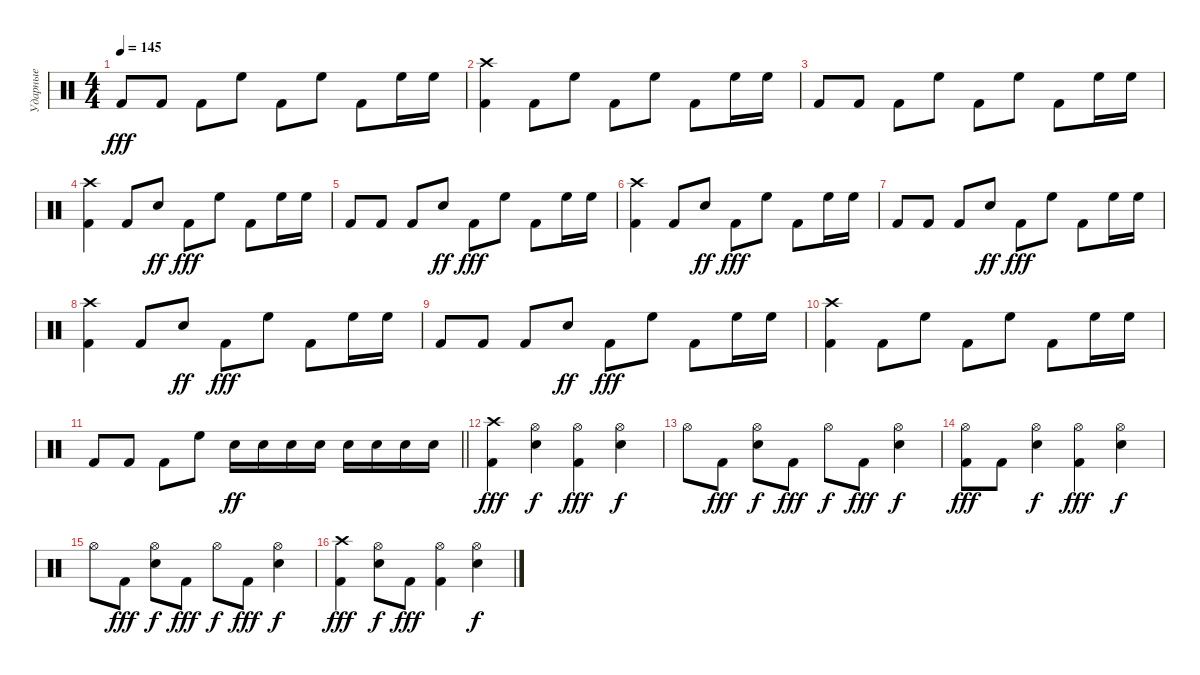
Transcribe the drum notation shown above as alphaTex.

\track ("Ударные" "Ударные") {instrument percussion}
\staff {score}
\articulation defaults
\ts (4 4)
\tempo 145
\clef neutral
\ks c "Kick (hit) 2".8{dy fff} "Kick (hit) 2".8 "Kick (hit) 2".8 "High Floor Tom (hit)".8 "Kick (hit) 2".8 "High Floor Tom (hit)".8 "Kick (hit) 2".8 "High Floor Tom (hit)".16 "High Floor Tom (hit)".16
|
("Kick (hit) 2" "Crash high (hit)").4 "Kick (hit) 2".8 "High Floor Tom (hit)".8 "Kick (hit) 2".8 "High Floor Tom (hit)".8 "Kick (hit) 2".8 "High Floor Tom (hit)".16 "High Floor Tom (hit)".16 |
"Kick (hit) 2".8 "Kick (hit) 2".8 "Kick (hit) 2".8 "High Floor Tom (hit)".8 "Kick (hit) 2".8 "High Floor Tom (hit)".8 "Kick (hit) 2".8 "High Floor Tom (hit)".16 "High Floor Tom (hit)".16 |
("Kick (hit) 2" "Crash high (hit)").4 "Kick (hit) 2".8 "Snare (hit) 2".8{dy ff} "Kick (hit) 2".8{dy fff} "High Floor Tom (hit)".8 "Kick (hit) 2".8 "High Floor Tom (hit)".16 "High Floor Tom (hit)".16 |
"Kick (hit) 2".8 "Kick (hit) 2".8 "Kick (hit) 2".8 "Snare (hit) 2".8{dy ff} "Kick (hit) 2".8{dy fff} "High Floor Tom (hit)".8 "Kick (hit) 2".8 "High Floor Tom (hit)".16 "High Floor Tom (hit)".16 |
("Kick (hit) 2" "Crash high (hit)").4 "Kick (hit) 2".8 "Snare (hit) 2".8{dy ff} "Kick (hit) 2".8{dy fff} "High Floor Tom (hit)".8 "Kick (hit) 2".8 "High Floor Tom (hit)".16 "High Floor Tom (hit)".16 |
"Kick (hit) 2".8 "Kick (hit) 2".8 "Kick (hit) 2".8 "Snare (hit) 2".8{dy ff} "Kick (hit) 2".8{dy fff} "High Floor Tom (hit)".8 "Kick (hit) 2".8 "High Floor Tom (hit)".16 "High Floor Tom (hit)".16 |
("Kick (hit) 2" "Crash high (hit)").4 "Kick (hit) 2".8 "Snare (hit) 2".8{dy ff} "Kick (hit) 2".8{dy fff} "High Floor Tom (hit)".8 "Kick (hit) 2".8 "High Floor Tom (hit)".16 "High Floor Tom (hit)".16 |
"Kick (hit) 2".8 "Kick (hit) 2".8 "Kick (hit) 2".8 "Snare (hit) 2".8{dy ff} "Kick (hit) 2".8{dy fff} "High Floor Tom (hit)".8 "Kick (hit) 2".8 "High Floor Tom (hit)".16 "High Floor Tom (hit)".16 |
("Kick (hit) 2" "Crash high (hit)").4 "Kick (hit) 2".8 "High Floor Tom (hit)".8 "Kick (hit) 2".8 "High Floor Tom (hit)".8 "Kick (hit) 2".8 "High Floor Tom (hit)".16 "High Floor Tom (hit)".16 |
\barLineRight lightlight "Kick (hit) 2".8 "Kick (hit) 2".8 "Kick (hit) 2".8 "High Floor Tom (hit)".8 "Snare (hit) 2".16{dy ff} "Snare (hit) 2".16 "Snare (hit) 2".16 "Snare (hit) 2".16 "Snare (hit) 2".16 "Snare (hit) 2".16 "Snare (hit) 2".16 "Snare (hit) 2".16
|
("Kick (hit) 2" "Crash high (hit)").4{dy fff} ("Snare (hit) 2" "Hi-Hat (open)").4{dy f} ("Kick (hit) 2" "Hi-Hat (open)").4{dy fff} ("Snare (hit) 2" "Hi-Hat (open)").4{dy f} |
"Hi-Hat (open)".8 "Kick (hit) 2".8{dy fff} ("Snare (hit) 2" "Hi-Hat (open)").8{dy f} "Kick (hit) 2".8{dy fff} "Hi-Hat (open)".8{dy f} "Kick (hit) 2".8{dy fff} ("Snare (hit) 2" "Hi-Hat (open)").4{dy f} |
("Kick (hit) 2" "Hi-Hat (open)").8{dy fff} "Kick (hit) 2".8 ("Snare (hit) 2" "Hi-Hat (open)").4{dy f} ("Kick (hit) 2" "Hi-Hat (open)").4{dy fff} ("Snare (hit) 2" "Hi-Hat (open)").4{dy f} |
"Hi-Hat (open)".8 "Kick (hit) 2".8{dy fff} ("Snare (hit) 2" "Hi-Hat (open)").8{dy f} "Kick (hit) 2".8{dy fff} "Hi-Hat (open)".8{dy f} "Kick (hit) 2".8{dy fff} ("Snare (hit) 2" "Hi-Hat (open)").4{dy f} |
("Kick (hit) 2" "Crash high (hit)").4{dy fff} ("Snare (hit) 2" "Hi-Hat (open)").8{dy f} "Kick (hit) 2".8{dy fff} ("Kick (hit) 2" "Hi-Hat (open)").4 ("Snare (hit) 2" "Hi-Hat (open)").4{dy f}
